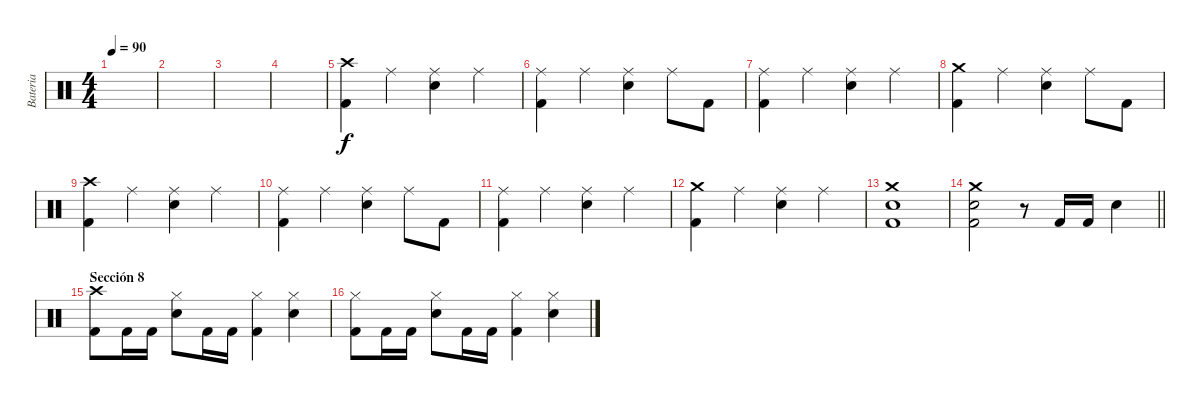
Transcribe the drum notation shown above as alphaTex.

\track ("Bateria" "Bateria") {instrument percussion}
\staff {score}
\articulation defaults
\ts (4 4)
\tempo 90
\clef neutral
\ks c
|
|
|
|
("Crash high (hit)" "Kick (hit) 2").4 "Ride (middle)".4 ("Ride (middle)" "Snare (hit) 2").4 "Ride (middle)".4 |
("Ride (middle)" "Kick (hit) 2").4 "Ride (middle)".4 ("Ride (middle)" "Snare (hit) 2").4 "Ride (middle)".8 "Kick (hit) 2".8 |
("Ride (middle)" "Kick (hit) 2").4 "Ride (middle)".4 ("Ride (middle)" "Snare (hit) 2").4 "Ride (middle)".4 |
("Crash medium (hit)" "Kick (hit) 2").4 "Ride (middle)".4 ("Ride (middle)" "Snare (hit) 2").4 "Ride (middle)".8 "Kick (hit) 2".8 |
("Crash high (hit)" "Kick (hit) 2").4 "Ride (middle)".4 ("Ride (middle)" "Snare (hit) 2").4 "Ride (middle)".4 |
("Ride (middle)" "Kick (hit) 2").4 "Ride (middle)".4 ("Ride (middle)" "Snare (hit) 2").4 "Ride (middle)".8 "Kick (hit) 2".8 |
("Ride (middle)" "Kick (hit) 2").4 "Ride (middle)".4 ("Ride (middle)" "Snare (hit) 2").4 "Ride (middle)".4 |
("Crash medium (hit)" "Kick (hit) 2").4 "Ride (middle)".4 ("Ride (middle)" "Snare (hit) 2").4 "Ride (middle)".4 |
("Crash medium (hit)" "Snare (hit) 2" "Kick (hit) 2").1 |
\barLineRight lightlight
("Crash medium (hit)" "Snare (hit) 2" "Kick (hit) 2").2 r.8 "Kick (hit) 2".16 "Kick (hit) 2".16 "Snare (hit) 2".4 |
\section ("" "Sección 8")
("Crash high (hit)" "Kick (hit) 2").8 "Kick (hit) 2".16 "Kick (hit) 2".16 ("Hi-Hat (closed)" "Snare (hit) 2").8 "Kick (hit) 2".16 "Kick (hit) 2".16 ("Hi-Hat (closed)" "Kick (hit) 2").4 ("Hi-Hat (closed)" "Snare (hit) 2").4 |
("Hi-Hat (closed)" "Kick (hit) 2").8 "Kick (hit) 2".16 "Kick (hit) 2".16 ("Hi-Hat (closed)" "Snare (hit) 2").8 "Kick (hit) 2".16 "Kick (hit) 2".16 ("Hi-Hat (closed)" "Kick (hit) 2").4 ("Hi-Hat (closed)" "Snare (hit) 2").4
